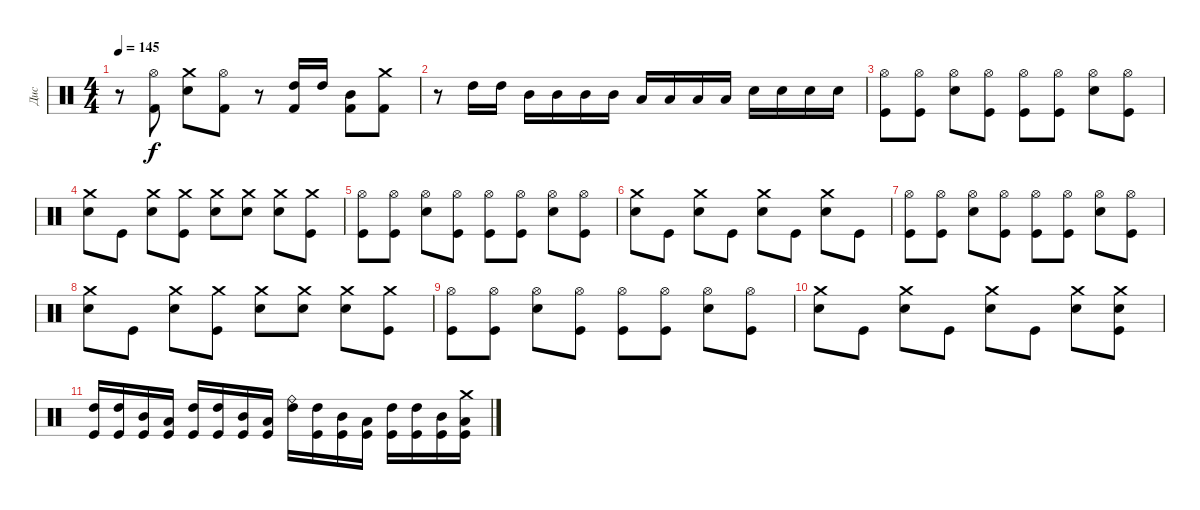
\track ("Дис" "Дис") {instrument percussion}
\staff {score}
\articulation defaults
\ts (4 4)
\tempo 145
\clef neutral
\ks c
r.8{dy f} ("Hi-Hat (open)" "Kick (hit) 2").8 ("Crash medium (hit)" "Electric Snare (hit)").8 ("Hi-Hat (open)" "Kick (hit) 2").8 r.8 ("High Tom (hit)" "Kick (hit) 2").16 "High Tom (hit)".16 ("Mid Tom (hit)" "Kick (hit) 2").8 ("Crash medium (hit)" "Kick (hit) 2").8 |
r.8 "High Tom (hit)".16 "High Tom (hit)".16 "Mid Tom (hit)".16 "Mid Tom (hit)".16 "Mid Tom (hit)".16 "Mid Tom (hit)".16 "Low Tom (hit)".16 "Low Tom (hit)".16 "Low Tom (hit)".16 "Low Tom (hit)".16 "Electric Snare (hit)".16 "Electric Snare (hit)".16 "Electric Snare (hit)".16 "Electric Snare (hit)".16 |
("Hi-Hat (open)" "Kick (hit)").8 ("Hi-Hat (open)" "Kick (hit)").8 ("Hi-Hat (open)" "Electric Snare (hit)").8 ("Hi-Hat (open)" "Kick (hit)").8 ("Hi-Hat (open)" "Kick (hit)").8 ("Hi-Hat (open)" "Kick (hit)").8 ("Hi-Hat (open)" "Electric Snare (hit)").8 ("Hi-Hat (open)" "Kick (hit)").8 |
("Crash medium (hit)" "Electric Snare (hit)").8 "Kick (hit)".8 ("Crash medium (hit)" "Electric Snare (hit)").8 ("Crash medium (hit)" "Kick (hit)").8 ("Crash medium (hit)" "Electric Snare (hit)").8 ("Crash medium (hit)" "Electric Snare (hit)").8 ("Crash medium (hit)" "Electric Snare (hit)").8 ("Crash medium (hit)" "Kick (hit)").8 |
("Hi-Hat (open)" "Kick (hit)").8 ("Hi-Hat (open)" "Kick (hit)").8 ("Hi-Hat (open)" "Electric Snare (hit)").8 ("Hi-Hat (open)" "Kick (hit)").8 ("Hi-Hat (open)" "Kick (hit)").8 ("Hi-Hat (open)" "Kick (hit)").8 ("Hi-Hat (open)" "Electric Snare (hit)").8 ("Hi-Hat (open)" "Kick (hit)").8 |
("Crash medium (hit)" "Electric Snare (hit)").8 "Kick (hit)".8 ("Crash medium (hit)" "Electric Snare (hit)").8 "Kick (hit)".8 ("Crash medium (hit)" "Electric Snare (hit)").8 "Kick (hit)".8 ("Crash medium (hit)" "Electric Snare (hit)").8 "Kick (hit)".8 |
("Hi-Hat (open)" "Kick (hit)").8 ("Hi-Hat (open)" "Kick (hit)").8 ("Hi-Hat (open)" "Electric Snare (hit)").8 ("Hi-Hat (open)" "Kick (hit)").8 ("Hi-Hat (open)" "Kick (hit)").8 ("Hi-Hat (open)" "Kick (hit)").8 ("Hi-Hat (open)" "Electric Snare (hit)").8 ("Hi-Hat (open)" "Kick (hit)").8 |
("Crash medium (hit)" "Electric Snare (hit)").8 "Kick (hit)".8 ("Crash medium (hit)" "Electric Snare (hit)").8 ("Crash medium (hit)" "Kick (hit)").8 ("Crash medium (hit)" "Electric Snare (hit)").8 ("Crash medium (hit)" "Electric Snare (hit)").8 ("Crash medium (hit)" "Electric Snare (hit)").8 ("Crash medium (hit)" "Kick (hit)").8 |
("Hi-Hat (open)" "Kick (hit)").8 ("Hi-Hat (open)" "Kick (hit)").8 ("Hi-Hat (open)" "Electric Snare (hit)").8 ("Hi-Hat (open)" "Kick (hit)").8 ("Hi-Hat (open)" "Kick (hit)").8 ("Hi-Hat (open)" "Kick (hit)").8 ("Hi-Hat (open)" "Electric Snare (hit)").8 ("Hi-Hat (open)" "Kick (hit)").8 |
("Crash medium (hit)" "Electric Snare (hit)").8 "Kick (hit)".8 ("Crash medium (hit)" "Electric Snare (hit)").8 "Kick (hit)".8 ("Crash medium (hit)" "Electric Snare (hit)").8 "Kick (hit)".8 ("Crash medium (hit)" "Electric Snare (hit)").8 ("Crash medium (hit)" "Electric Snare (hit)" "Kick (hit)").8 |
("High Tom (hit)" "Kick (hit)").16 ("High Tom (hit)" "Kick (hit)").16 ("Mid Tom (hit)" "Kick (hit)").16 ("Low Tom (hit)" "Kick (hit)").16 ("High Tom (hit)" "Kick (hit)").16 ("High Tom (hit)" "Kick (hit)").16 ("Mid Tom (hit)" "Kick (hit)").16 ("Low Tom (hit)" "Kick (hit)").16 ("High Tom (hit)" "Ride (bell)").16 ("High Tom (hit)" "Kick (hit)").16 ("Mid Tom (hit)" "Kick (hit)").16 ("Low Tom (hit)" "Kick (hit)").16 ("High Tom (hit)" "Kick (hit)").16 ("High Tom (hit)" "Kick (hit)").16 ("Mid Tom (hit)" "Kick (hit)").16 ("Crash medium (hit)" "Low Tom (hit)" "Kick (hit)").16
